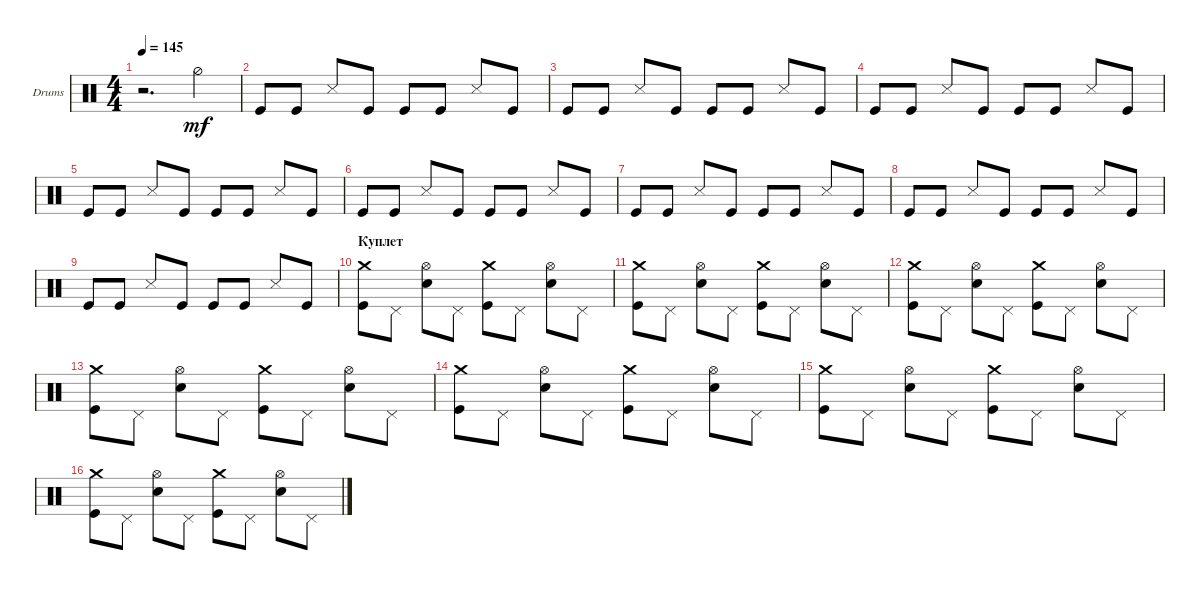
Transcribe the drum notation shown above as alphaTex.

\defaultSystemsLayout 4
\bracketExtendMode groupsimilarinstruments
\firstSystemTrackNameOrientation horizontal
\otherSystemsTrackNameOrientation horizontal
\track ("Е. Кулаков" "Drums") {instrument percussion}
\staff {score}
\articulation defaults
\ts (4 4)
\tempo 145
\clef neutral
\ks c
r.2{d dy mf} "Hi-Hat (half)".4 |
"Kick (hit)".8 "Kick (hit)".8 "Snare (side stick) 3".8 "Kick (hit)".8 "Kick (hit)".8 "Kick (hit)".8 "Snare (side stick) 3".8 "Kick (hit)".8 |
"Kick (hit)".8 "Kick (hit)".8 "Snare (side stick) 3".8 "Kick (hit)".8 "Kick (hit)".8 "Kick (hit)".8 "Snare (side stick) 3".8 "Kick (hit)".8 |
"Kick (hit)".8 "Kick (hit)".8 "Snare (side stick) 3".8 "Kick (hit)".8 "Kick (hit)".8 "Kick (hit)".8 "Snare (side stick) 3".8 "Kick (hit)".8 |
"Kick (hit)".8 "Kick (hit)".8 "Snare (side stick) 3".8 "Kick (hit)".8 "Kick (hit)".8 "Kick (hit)".8 "Snare (side stick) 3".8 "Kick (hit)".8 |
"Kick (hit)".8 "Kick (hit)".8 "Snare (side stick) 3".8 "Kick (hit)".8 "Kick (hit)".8 "Kick (hit)".8 "Snare (side stick) 3".8 "Kick (hit)".8 |
"Kick (hit)".8 "Kick (hit)".8 "Snare (side stick) 3".8 "Kick (hit)".8 "Kick (hit)".8 "Kick (hit)".8 "Snare (side stick) 3".8 "Kick (hit)".8 |
"Kick (hit)".8 "Kick (hit)".8 "Snare (side stick) 3".8 "Kick (hit)".8 "Kick (hit)".8 "Kick (hit)".8 "Snare (side stick) 3".8 "Kick (hit)".8 |
"Kick (hit)".8 "Kick (hit)".8 "Snare (side stick) 3".8 "Kick (hit)".8 "Kick (hit)".8 "Kick (hit)".8 "Snare (side stick) 3".8 "Kick (hit)".8 |
\section ("" "Куплет")
("Kick (hit)" "Crash medium (hit)").8 "Pedal Hi-Hat (hit)".8 ("Snare (hit) 2" "Hi-Hat (open)").8 "Pedal Hi-Hat (hit)".8 ("Kick (hit)" "Crash medium (hit)").8 "Pedal Hi-Hat (hit)".8 ("Snare (hit) 2" "Hi-Hat (open)").8 "Pedal Hi-Hat (hit)".8 |
("Kick (hit)" "Crash medium (hit)").8 "Pedal Hi-Hat (hit)".8 ("Snare (hit) 2" "Hi-Hat (open)").8 "Pedal Hi-Hat (hit)".8 ("Kick (hit)" "Crash medium (hit)").8 "Pedal Hi-Hat (hit)".8 ("Snare (hit) 2" "Hi-Hat (open)").8 "Pedal Hi-Hat (hit)".8 |
("Kick (hit)" "Crash medium (hit)").8 "Pedal Hi-Hat (hit)".8 ("Snare (hit) 2" "Hi-Hat (open)").8 "Pedal Hi-Hat (hit)".8 ("Kick (hit)" "Crash medium (hit)").8 "Pedal Hi-Hat (hit)".8 ("Snare (hit) 2" "Hi-Hat (open)").8 "Pedal Hi-Hat (hit)".8 |
("Kick (hit)" "Crash medium (hit)").8 "Pedal Hi-Hat (hit)".8 ("Snare (hit) 2" "Hi-Hat (open)").8 "Pedal Hi-Hat (hit)".8 ("Kick (hit)" "Crash medium (hit)").8 "Pedal Hi-Hat (hit)".8 ("Snare (hit) 2" "Hi-Hat (open)").8 "Pedal Hi-Hat (hit)".8 |
("Kick (hit)" "Crash medium (hit)").8 "Pedal Hi-Hat (hit)".8 ("Snare (hit) 2" "Hi-Hat (open)").8 "Pedal Hi-Hat (hit)".8 ("Kick (hit)" "Crash medium (hit)").8 "Pedal Hi-Hat (hit)".8 ("Snare (hit) 2" "Hi-Hat (open)").8 "Pedal Hi-Hat (hit)".8 |
("Kick (hit)" "Crash medium (hit)").8 "Pedal Hi-Hat (hit)".8 ("Snare (hit) 2" "Hi-Hat (open)").8 "Pedal Hi-Hat (hit)".8 ("Kick (hit)" "Crash medium (hit)").8 "Pedal Hi-Hat (hit)".8 ("Snare (hit) 2" "Hi-Hat (open)").8 "Pedal Hi-Hat (hit)".8 |
("Kick (hit)" "Crash medium (hit)").8 "Pedal Hi-Hat (hit)".8 ("Snare (hit) 2" "Hi-Hat (open)").8 "Pedal Hi-Hat (hit)".8 ("Kick (hit)" "Crash medium (hit)").8 "Pedal Hi-Hat (hit)".8 ("Snare (hit) 2" "Hi-Hat (open)").8 "Pedal Hi-Hat (hit)".8
